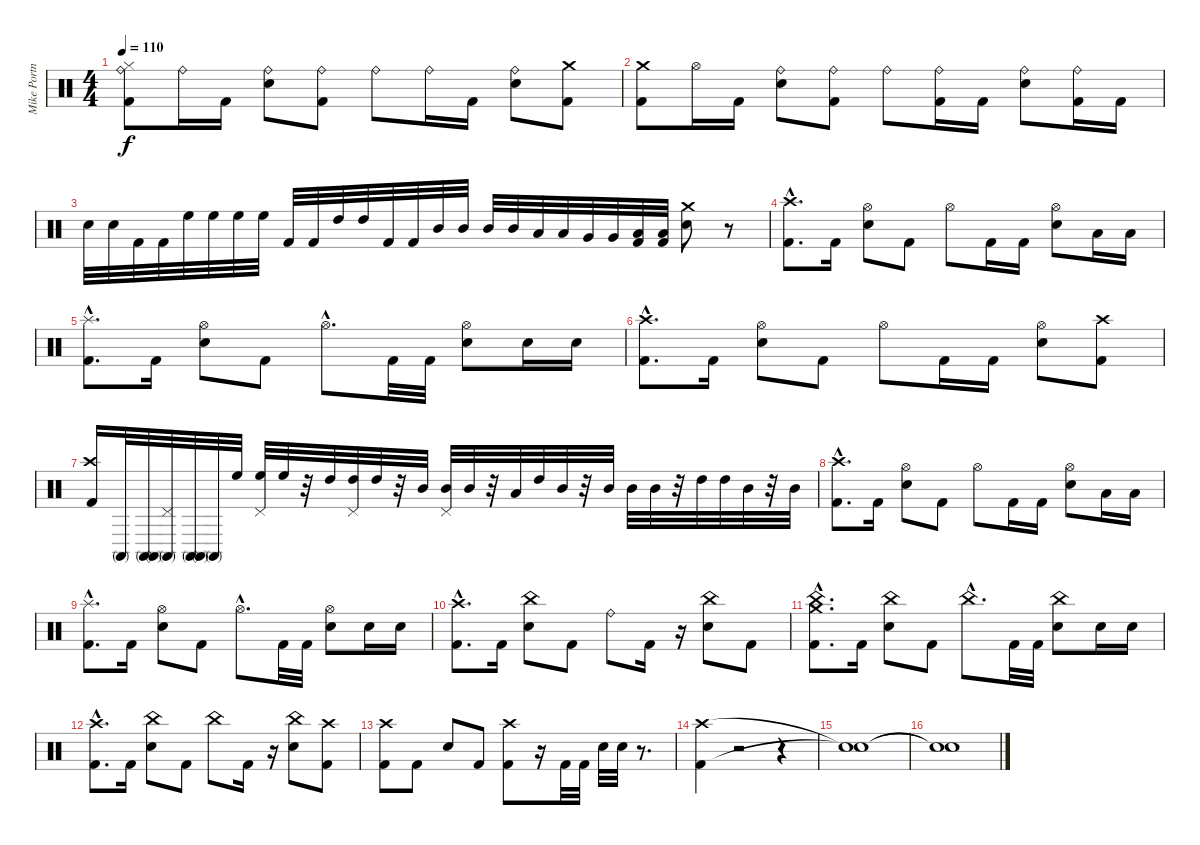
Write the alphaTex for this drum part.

\track ("Mike Portnoy - Drums" "Mike Portn") {instrument percussion}
\staff {score}
\articulation defaults
\ts (4 4)
\tempo 110
\clef neutral
\ks c
("Ride (bell)" "Hi-Hat (closed)" "Kick (hit) 2").8{dy f} "Ride (bell)".16 "Kick (hit) 2".16 ("Electric Snare (hit)" "Ride (bell)").8 ("Kick (hit) 2" "Ride (bell)").8 "Ride (bell)".8 "Ride (bell)".16 "Kick (hit) 2".16 ("Ride (bell)" "Electric Snare (hit)").8 ("Kick (hit) 2" "Crash medium (hit)").8 |
("Kick (hit) 2" "Crash medium (hit)").8 "Hi-Hat (open)".16 "Kick (hit) 2".16 ("Electric Snare (hit)" "Ride (bell)").8 ("Ride (bell)" "Kick (hit) 2").8 "Ride (bell)".8 ("Kick (hit) 2" "Ride (bell)").16 "Kick (hit) 2".16 ("Ride (bell)" "Electric Snare (hit)").8 ("Ride (bell)" "Kick (hit) 2").16 "Kick (hit) 2".16 |
"Electric Snare (hit)".32 "Electric Snare (hit)".32 "Kick (hit) 2".32 "Kick (hit) 2".32 "High Floor Tom (hit)".32 "High Floor Tom (hit)".32 "High Floor Tom (hit)".32 "High Floor Tom (hit)".32 "Kick (hit) 2".32 "Kick (hit) 2".32 "High Tom (hit)".32 "High Tom (hit)".32 "Kick (hit) 2".32 "Kick (hit) 2".32 "Mid Tom (hit)".32 "Mid Tom (hit)".32 "Mid Tom (hit)".32 "Mid Tom (hit)".32 "Low Tom (hit)".32 "Low Tom (hit)".32 "Very Low Tom (hit)".32 "Very Low Tom (hit)".32 ("Low Floor Tom (hit)" "Kick (hit) 2").32 ("Low Floor Tom (hit)" "Kick (hit) 2").32 ("Electric Snare (hit)" "Crash medium (hit)").8 r.8 |
("Kick (hit) 2"{hac} "Crash high (hit)"{hac}).8{d} "Kick (hit) 2".16 ("Electric Snare (hit)" "Hi-Hat (open)").8 "Kick (hit) 2".8 "Hi-Hat (open)".8 "Kick (hit) 2".16 "Kick (hit) 2".16 ("Electric Snare (hit)" "Hi-Hat (open)").8 "Low Tom (hit)".16 "Low Tom (hit)".16 |
("Kick (hit) 2"{hac} "Splash (hit)"{hac}).8{d} "Kick (hit) 2".16 ("Electric Snare (hit)" "Hi-Hat (open)").8 "Kick (hit) 2".8 "Hi-Hat (open)"{hac}.8{d} "Kick (hit) 2".32 "Kick (hit) 2".32 ("Hi-Hat (open)" "Electric Snare (hit)").8 "Electric Snare (hit)".16 "Electric Snare (hit)".16 |
("Crash high (hit)"{hac} "Kick (hit) 2"{hac}).8{d} "Kick (hit) 2".16 ("Electric Snare (hit)" "Hi-Hat (open)").8 "Kick (hit) 2".8 "Hi-Hat (open)".8 "Kick (hit) 2".16 "Kick (hit) 2".16 ("Hi-Hat (open)" "Electric Snare (hit)").8 ("Kick (hit) 2" "Crash high (hit)").8 |
("Crash high (hit)" "Kick (hit) 2").16 "Conga high (mute)".32 ("Conga high (mute)" "Conga high (mute)").32 ("Pedal Hi-Hat (hit)" "Conga high (mute)").32 ("Conga high (mute)" "Conga high (mute)").32 "Conga high (mute)".32 "High Floor Tom (hit)".32 ("Pedal Hi-Hat (hit)" "High Floor Tom (hit)").32 "High Floor Tom (hit)".32 r.32 "High Tom (hit)".32 ("Pedal Hi-Hat (hit)" "High Tom (hit)").32 "High Tom (hit)".32 r.32 "Mid Tom (hit)".32 ("Pedal Hi-Hat (hit)" "Mid Tom (hit)").32 "Mid Tom (hit)".32 r.32 "Low Tom (hit)".32 "High Tom (hit)".32 "Mid Tom (hit)".32 r.32 "Mid Tom (hit)".32 "Mid Tom (hit)".32 "Mid Tom (hit)".32 r.32 "High Tom (hit)".32 "High Tom (hit)".32 "Mid Tom (hit)".32 r.32 "Mid Tom (hit)".32 |
("Crash high (hit)"{hac} "Kick (hit) 2"{hac}).8{d} "Kick (hit) 2".16 ("Electric Snare (hit)" "Hi-Hat (open)").8 "Kick (hit) 2".8 "Hi-Hat (open)".8 "Kick (hit) 2".16 "Kick (hit) 2".16 ("Electric Snare (hit)" "Hi-Hat (open)").8 "Low Tom (hit)".16 "Low Tom (hit)".16 |
("Kick (hit) 2"{hac} "Splash (hit)"{hac}).8{d} "Kick (hit) 2".16 ("Electric Snare (hit)" "Hi-Hat (open)").8 "Kick (hit) 2".8 "Hi-Hat (open)"{hac}.8{d} "Kick (hit) 2".32 "Kick (hit) 2".32 ("Hi-Hat (open)" "Electric Snare (hit)").8 "Electric Snare (hit)".16 "Electric Snare (hit)".16 |
("Kick (hit) 2"{hac} "Crash high (hit)"{hac}).8{d} "Kick (hit) 2".16 ("Electric Snare (hit)" "China (hit)").8 "Kick (hit) 2".8 "Ride (bell)".8 "Kick (hit) 2".16 r.16 ("Electric Snare (hit)" "China (hit)").8 "Kick (hit) 2".8 |
("Kick (hit) 2"{hac} "Crash medium (hit)"{hac} "China (hit)"{hac}).8{d} "Kick (hit) 2".16 ("Electric Snare (hit)" "China (hit)").8 "Kick (hit) 2".8 "China (hit)"{hac}.8{d} "Kick (hit) 2".32 "Kick (hit) 2".32 ("Electric Snare (hit)" "China (hit)").8 "Electric Snare (hit)".16 "Electric Snare (hit)".16 |
("Crash high (hit)"{hac} "Kick (hit) 2"{hac}).8{d} "Kick (hit) 2".16 ("Electric Snare (hit)" "China (hit)").8 "Kick (hit) 2".8 "China (hit)".8 "Kick (hit) 2".16 r.16 ("Electric Snare (hit)" "China (hit)").8 ("Kick (hit) 2" "Crash high (hit)").8 |
("Crash high (hit)" "Kick (hit) 2").8 "Kick (hit) 2".8 "Electric Snare (hit)".8 "Kick (hit) 2".8 ("Kick (hit) 2" "Crash high (hit)").8 r.16 "Kick (hit) 2".32 "Kick (hit) 2".32 "Electric Snare (hit)".32 "Electric Snare (hit)".32 r.8{d} |
("Kick (hit) 2" "Crash high (hit)").4 r.2 r.4 |
("Snare (hit)"{t} "Snare (hit)"{t}).1 |
("Snare (hit)"{t} "Snare (hit)"{t}).1
